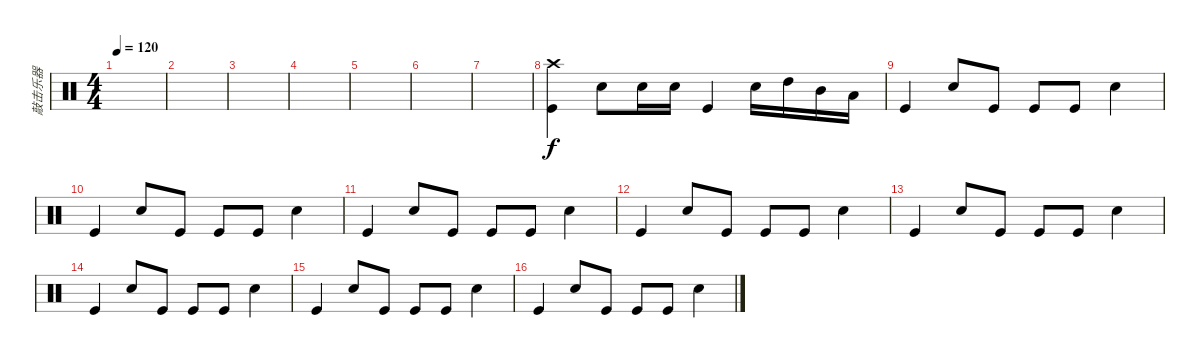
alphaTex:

\track ("敲击乐器" "敲击乐器") {instrument percussion}
\staff {score}
\articulation defaults
\ts (4 4)
\tempo 120
\clef neutral
\ks c
|
|
|
|
|
|
|
("Crash high (hit)" "Kick (hit)").4 "Snare (hit) 2".8 "Snare (hit) 2".16 "Snare (hit) 2".16 "Kick (hit)".4 "Snare (hit) 2".16 "High Tom (hit)".16 "Mid Tom (hit)".16 "Low Tom (hit)".16 |
"Kick (hit)".4 "Snare (hit) 2".8 "Kick (hit)".8 "Kick (hit)".8 "Kick (hit)".8 "Snare (hit) 2".4 |
"Kick (hit)".4 "Snare (hit) 2".8 "Kick (hit)".8 "Kick (hit)".8 "Kick (hit)".8 "Snare (hit) 2".4 |
"Kick (hit)".4 "Snare (hit) 2".8 "Kick (hit)".8 "Kick (hit)".8 "Kick (hit)".8 "Snare (hit) 2".4 |
"Kick (hit)".4 "Snare (hit) 2".8 "Kick (hit)".8 "Kick (hit)".8 "Kick (hit)".8 "Snare (hit) 2".4 |
"Kick (hit)".4 "Snare (hit) 2".8 "Kick (hit)".8 "Kick (hit)".8 "Kick (hit)".8 "Snare (hit) 2".4 |
"Kick (hit)".4 "Snare (hit) 2".8 "Kick (hit)".8 "Kick (hit)".8 "Kick (hit)".8 "Snare (hit) 2".4 |
"Kick (hit)".4 "Snare (hit) 2".8 "Kick (hit)".8 "Kick (hit)".8 "Kick (hit)".8 "Snare (hit) 2".4 |
"Kick (hit)".4 "Snare (hit) 2".8 "Kick (hit)".8 "Kick (hit)".8 "Kick (hit)".8 "Snare (hit) 2".4
